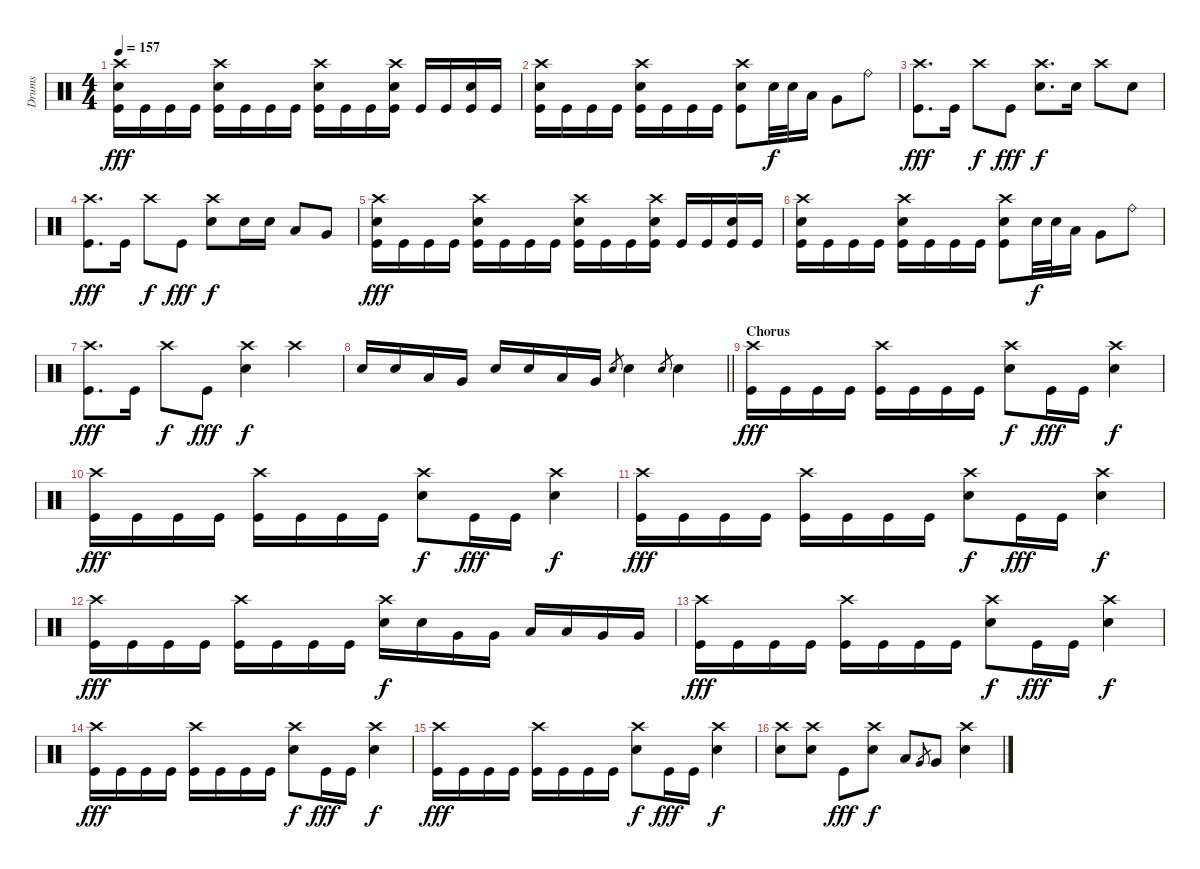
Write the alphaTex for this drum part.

\track ("Drums" "Drums") {instrument percussion}
\staff {score}
\articulation defaults
\ts (4 4)
\tempo 157
\clef neutral
\ks c
("Crash high (hit)" "Snare (hit) 2" "Kick (hit)").16{dy fff} "Kick (hit)".16 "Kick (hit)".16 "Kick (hit)".16 ("Crash high (hit)" "Snare (hit) 2" "Kick (hit)").16 "Kick (hit)".16 "Kick (hit)".16 "Kick (hit)".16 ("Crash high (hit)" "Snare (hit) 2" "Kick (hit)").16 "Kick (hit)".16 "Kick (hit)".16 ("Crash high (hit)" "Snare (hit) 2" "Kick (hit)").16 "Kick (hit)".16 "Kick (hit)".16 ("Snare (hit) 2" "Kick (hit)").16 "Kick (hit)".16 |
("Crash high (hit)" "Snare (hit) 2" "Kick (hit)").16 "Kick (hit)".16 "Kick (hit)".16 "Kick (hit)".16 ("Crash high (hit)" "Snare (hit) 2" "Kick (hit)").16 "Kick (hit)".16 "Kick (hit)".16 "Kick (hit)".16 ("Crash high (hit)" "Snare (hit) 2" "Kick (hit)").8 "Snare (hit) 2".32{dy f} "Snare (hit) 2".32 "Low Tom (hit)".16 "Very Low Tom (hit)".8 "Ride (bell)".8 |
("Crash high (hit)" "Kick (hit)").8{d dy fff} "Kick (hit)".16 "Crash high (hit)".8{dy f} "Kick (hit)".8{dy fff} ("Crash high (hit)" "Snare (hit) 2").8{d dy f} "Snare (hit) 2".16 "Crash high (hit)".8 "Snare (hit) 2".8 |
("Crash high (hit)" "Kick (hit)").8{d dy fff} "Kick (hit)".16 "Crash high (hit)".8{dy f} "Kick (hit)".8{dy fff} ("Crash high (hit)" "Snare (hit) 2").8{dy f} "Snare (hit) 2".16 "Snare (hit) 2".16 "Low Tom (hit)".8 "Very Low Tom (hit)".8 |
("Crash high (hit)" "Snare (hit) 2" "Kick (hit)").16{dy fff} "Kick (hit)".16 "Kick (hit)".16 "Kick (hit)".16 ("Crash high (hit)" "Snare (hit) 2" "Kick (hit)").16 "Kick (hit)".16 "Kick (hit)".16 "Kick (hit)".16 ("Crash high (hit)" "Snare (hit) 2" "Kick (hit)").16 "Kick (hit)".16 "Kick (hit)".16 ("Crash high (hit)" "Snare (hit) 2" "Kick (hit)").16 "Kick (hit)".16 "Kick (hit)".16 ("Snare (hit) 2" "Kick (hit)").16 "Kick (hit)".16 |
("Crash high (hit)" "Snare (hit) 2" "Kick (hit)").16 "Kick (hit)".16 "Kick (hit)".16 "Kick (hit)".16 ("Crash high (hit)" "Snare (hit) 2" "Kick (hit)").16 "Kick (hit)".16 "Kick (hit)".16 "Kick (hit)".16 ("Crash high (hit)" "Snare (hit) 2" "Kick (hit)").8 "Snare (hit) 2".32{dy f} "Snare (hit) 2".32 "Low Tom (hit)".16 "Very Low Tom (hit)".8 "Ride (bell)".8 |
("Crash high (hit)" "Kick (hit)").8{d dy fff} "Kick (hit)".16 "Crash high (hit)".8{dy f} "Kick (hit)".8{dy fff} ("Crash high (hit)" "Snare (hit) 2").4{dy f} "Crash high (hit)".4 |
\barLineRight lightlight "Snare (hit) 2".16 "Snare (hit) 2".16 "Low Tom (hit)".16 "Very Low Tom (hit)".16 "Snare (hit) 2".16 "Snare (hit) 2".16 "Low Tom (hit)".16 "Very Low Tom (hit)".16 "Snare (hit) 2".8{gr} "Snare (hit) 2".4 "Snare (hit) 2".8{gr} "Snare (hit) 2".4
|
\section ("" "Chorus")
("Crash high (hit)" "Kick (hit)").16{dy fff} "Kick (hit)".16 "Kick (hit)".16 "Kick (hit)".16 ("Crash high (hit)" "Kick (hit)").16 "Kick (hit)".16 "Kick (hit)".16 "Kick (hit)".16 ("Crash high (hit)" "Snare (hit) 2").8{dy f} "Kick (hit)".16{dy fff} "Kick (hit)".16 ("Crash high (hit)" "Snare (hit) 2").4{dy f} |
("Crash high (hit)" "Kick (hit)").16{dy fff} "Kick (hit)".16 "Kick (hit)".16 "Kick (hit)".16 ("Crash high (hit)" "Kick (hit)").16 "Kick (hit)".16 "Kick (hit)".16 "Kick (hit)".16 ("Crash high (hit)" "Snare (hit) 2").8{dy f} "Kick (hit)".16{dy fff} "Kick (hit)".16 ("Crash high (hit)" "Snare (hit) 2").4{dy f} |
("Crash high (hit)" "Kick (hit)").16{dy fff} "Kick (hit)".16 "Kick (hit)".16 "Kick (hit)".16 ("Crash high (hit)" "Kick (hit)").16 "Kick (hit)".16 "Kick (hit)".16 "Kick (hit)".16 ("Crash high (hit)" "Snare (hit) 2").8{dy f} "Kick (hit)".16{dy fff} "Kick (hit)".16 ("Crash high (hit)" "Snare (hit) 2").4{dy f} |
("Crash high (hit)" "Kick (hit)").16{dy fff} "Kick (hit)".16 "Kick (hit)".16 "Kick (hit)".16 ("Crash high (hit)" "Kick (hit)").16 "Kick (hit)".16 "Kick (hit)".16 "Kick (hit)".16 ("Crash high (hit)" "Snare (hit) 2").16{dy f} "Snare (hit) 2".16 "Very Low Tom (hit)".16 "Very Low Tom (hit)".16 "Low Tom (hit)".16 "Low Tom (hit)".16 "Very Low Tom (hit)".16 "Very Low Tom (hit)".16 |
("Crash high (hit)" "Kick (hit)").16{dy fff} "Kick (hit)".16 "Kick (hit)".16 "Kick (hit)".16 ("Crash high (hit)" "Kick (hit)").16 "Kick (hit)".16 "Kick (hit)".16 "Kick (hit)".16 ("Crash high (hit)" "Snare (hit) 2").8{dy f} "Kick (hit)".16{dy fff} "Kick (hit)".16 ("Crash high (hit)" "Snare (hit) 2").4{dy f} |
("Crash high (hit)" "Kick (hit)").16{dy fff} "Kick (hit)".16 "Kick (hit)".16 "Kick (hit)".16 ("Crash high (hit)" "Kick (hit)").16 "Kick (hit)".16 "Kick (hit)".16 "Kick (hit)".16 ("Crash high (hit)" "Snare (hit) 2").8{dy f} "Kick (hit)".16{dy fff} "Kick (hit)".16 ("Crash high (hit)" "Snare (hit) 2").4{dy f} |
("Crash high (hit)" "Kick (hit)").16{dy fff} "Kick (hit)".16 "Kick (hit)".16 "Kick (hit)".16 ("Crash high (hit)" "Kick (hit)").16 "Kick (hit)".16 "Kick (hit)".16 "Kick (hit)".16 ("Crash high (hit)" "Snare (hit) 2").8{dy f} "Kick (hit)".16{dy fff} "Kick (hit)".16 ("Crash high (hit)" "Snare (hit) 2").4{dy f} |
("Crash high (hit)" "Snare (hit) 2").8 ("Crash high (hit)" "Snare (hit) 2").8 "Kick (hit)".8{dy fff} ("Crash high (hit)" "Snare (hit) 2").8{dy f} "Low Tom (hit)".8 "Very Low Tom (hit)".8{gr} "Very Low Tom (hit)".8 ("Crash high (hit)" "Snare (hit) 2").4
